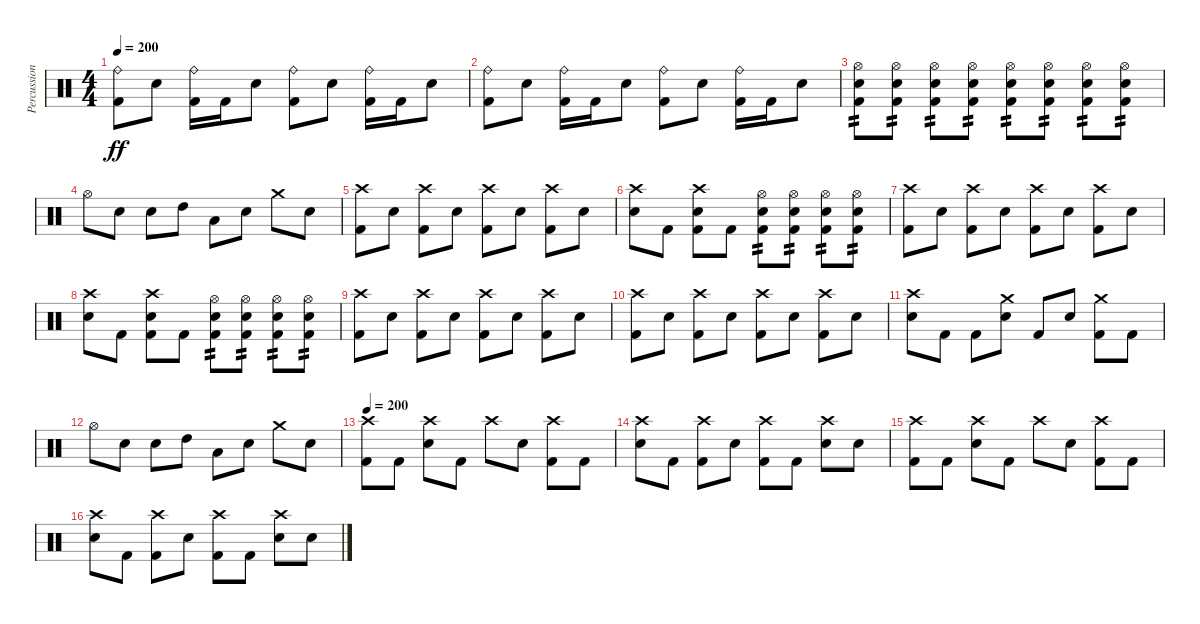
\track ("Percussion" "Percussion") {instrument percussion}
\staff {score}
\articulation defaults
\ts (4 4)
\tempo 200
\clef neutral
\ks c
("Ride (bell)" "Kick (hit) 2").8{dy ff} "Electric Snare (hit)".8 ("Ride (bell)" "Kick (hit) 2").16 "Kick (hit) 2".16 "Electric Snare (hit)".8 ("Ride (bell)" "Kick (hit) 2").8 "Electric Snare (hit)".8 ("Ride (bell)" "Kick (hit) 2").16 "Kick (hit) 2".16 "Electric Snare (hit)".8 |
("Ride (bell)" "Kick (hit) 2").8 "Electric Snare (hit)".8 ("Ride (bell)" "Kick (hit) 2").16 "Kick (hit) 2".16 "Electric Snare (hit)".8 ("Ride (bell)" "Kick (hit) 2").8 "Electric Snare (hit)".8 ("Ride (bell)" "Kick (hit) 2").16 "Kick (hit) 2".16 "Electric Snare (hit)".8 |
("Hi-Hat (open)" "Electric Snare (hit)" "Kick (hit) 2").8{tp 2} ("Hi-Hat (open)" "Electric Snare (hit)" "Kick (hit) 2").8{tp 2} ("Hi-Hat (open)" "Electric Snare (hit)" "Kick (hit) 2").8{tp 2} ("Hi-Hat (open)" "Electric Snare (hit)" "Kick (hit) 2").8{tp 2} ("Hi-Hat (open)" "Electric Snare (hit)" "Kick (hit) 2").8{tp 2} ("Hi-Hat (open)" "Electric Snare (hit)" "Kick (hit) 2").8{tp 2} ("Hi-Hat (open)" "Electric Snare (hit)" "Kick (hit) 2").8{tp 2} ("Hi-Hat (open)" "Electric Snare (hit)" "Kick (hit) 2").8{tp 2} |
"Hi-Hat (open)".8 "Electric Snare (hit)".8 "Electric Snare (hit)".8 "High Tom (hit)".8 "Low Tom (hit)".8 "Electric Snare (hit)".8 "Crash medium (hit)".8 "Electric Snare (hit)".8 |
("Crash high (hit)" "Kick (hit) 2").8 "Electric Snare (hit)".8 ("Crash high (hit)" "Kick (hit) 2").8 "Electric Snare (hit)".8 ("Crash high (hit)" "Kick (hit) 2").8 "Electric Snare (hit)".8 ("Crash high (hit)" "Kick (hit) 2").8 "Electric Snare (hit)".8 |
("Crash high (hit)" "Electric Snare (hit)").8 "Kick (hit) 2".8 ("Crash high (hit)" "Electric Snare (hit)" "Kick (hit) 2").8 "Kick (hit) 2".8 ("Hi-Hat (open)" "Electric Snare (hit)" "Kick (hit) 2").8{tp 2} ("Hi-Hat (open)" "Electric Snare (hit)" "Kick (hit) 2").8{tp 2} ("Hi-Hat (open)" "Electric Snare (hit)" "Kick (hit) 2").8{tp 2} ("Hi-Hat (open)" "Electric Snare (hit)" "Kick (hit) 2").8{tp 2} |
("Crash high (hit)" "Kick (hit) 2").8 "Electric Snare (hit)".8 ("Crash high (hit)" "Kick (hit) 2").8 "Electric Snare (hit)".8 ("Crash high (hit)" "Kick (hit) 2").8 "Electric Snare (hit)".8 ("Crash high (hit)" "Kick (hit) 2").8 "Electric Snare (hit)".8 |
("Crash high (hit)" "Electric Snare (hit)").8 "Kick (hit) 2".8 ("Crash high (hit)" "Electric Snare (hit)" "Kick (hit) 2").8 "Kick (hit) 2".8 ("Hi-Hat (open)" "Electric Snare (hit)" "Kick (hit) 2").8{tp 2} ("Hi-Hat (open)" "Electric Snare (hit)" "Kick (hit) 2").8{tp 2} ("Hi-Hat (open)" "Electric Snare (hit)" "Kick (hit) 2").8{tp 2} ("Hi-Hat (open)" "Electric Snare (hit)" "Kick (hit) 2").8{tp 2} |
("Crash high (hit)" "Kick (hit) 2").8 "Electric Snare (hit)".8 ("Crash high (hit)" "Kick (hit) 2").8 "Electric Snare (hit)".8 ("Crash high (hit)" "Kick (hit) 2").8 "Electric Snare (hit)".8 ("Crash high (hit)" "Kick (hit) 2").8 "Electric Snare (hit)".8 |
("Crash high (hit)" "Kick (hit) 2").8 "Electric Snare (hit)".8 ("Crash high (hit)" "Kick (hit) 2").8 "Electric Snare (hit)".8 ("Crash high (hit)" "Kick (hit) 2").8 "Electric Snare (hit)".8 ("Crash high (hit)" "Kick (hit) 2").8 "Electric Snare (hit)".8 |
("Crash high (hit)" "Electric Snare (hit)").8 "Kick (hit) 2".8 "Kick (hit) 2".8 ("Crash medium (hit)" "Electric Snare (hit)").8 "Kick (hit) 2".8 "Electric Snare (hit)".8 ("Crash medium (hit)" "Kick (hit) 2").8 "Kick (hit) 2".8 |
"Hi-Hat (open)".8 "Electric Snare (hit)".8 "Electric Snare (hit)".8 "High Tom (hit)".8 "Low Tom (hit)".8 "Electric Snare (hit)".8 "Crash medium (hit)".8 "Electric Snare (hit)".8 |
\tempo 200
("Crash high (hit)" "Kick (hit) 2").8 "Kick (hit) 2".8 ("Crash high (hit)" "Electric Snare (hit)").8 "Kick (hit) 2".8 "Crash high (hit)".8 "Electric Snare (hit)".8 ("Crash high (hit)" "Kick (hit) 2").8 "Kick (hit) 2".8 |
("Crash high (hit)" "Electric Snare (hit)").8 "Kick (hit) 2".8 ("Crash high (hit)" "Kick (hit) 2").8 "Electric Snare (hit)".8 ("Crash high (hit)" "Kick (hit) 2").8 "Kick (hit) 2".8 ("Crash high (hit)" "Electric Snare (hit)").8 "Electric Snare (hit)".8 |
("Crash high (hit)" "Kick (hit) 2").8 "Kick (hit) 2".8 ("Crash high (hit)" "Electric Snare (hit)").8 "Kick (hit) 2".8 "Crash high (hit)".8 "Electric Snare (hit)".8 ("Crash high (hit)" "Kick (hit) 2").8 "Kick (hit) 2".8 |
("Crash high (hit)" "Electric Snare (hit)").8 "Kick (hit) 2".8 ("Crash high (hit)" "Kick (hit) 2").8 "Electric Snare (hit)".8 ("Crash high (hit)" "Kick (hit) 2").8 "Kick (hit) 2".8 ("Crash high (hit)" "Electric Snare (hit)").8 "Electric Snare (hit)".8
